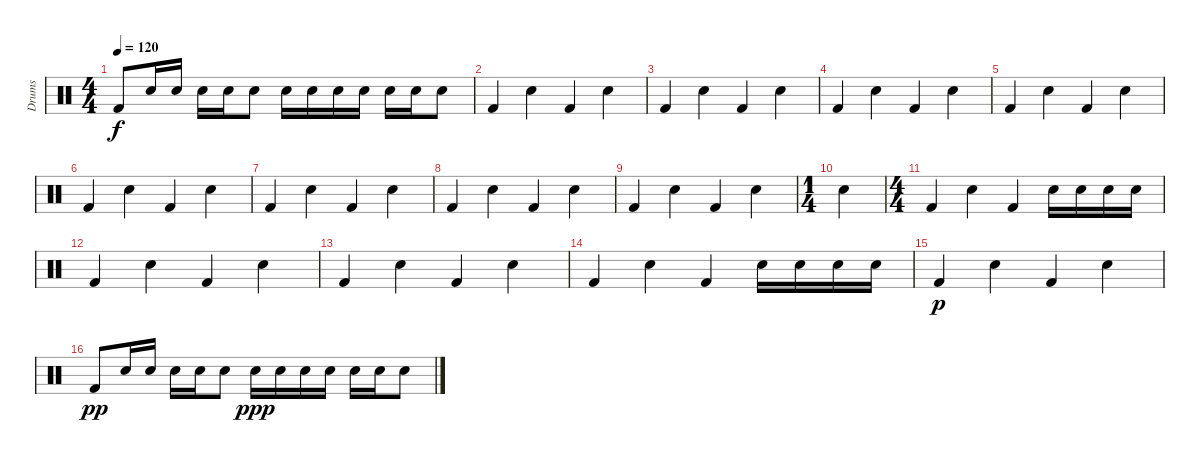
\track ("Drums" "Drums") {instrument percussion}
\staff {score}
\articulation defaults
\ts (4 4)
\tempo 120
\clef neutral
\ks c "Kick (hit) 2".8{dy f} "Electric Snare (hit)".16 "Electric Snare (hit)".16 "Electric Snare (hit)".16 "Electric Snare (hit)".16 "Electric Snare (hit)".8 "Electric Snare (hit)".16 "Electric Snare (hit)".16 "Electric Snare (hit)".16 "Electric Snare (hit)".16 "Electric Snare (hit)".16 "Electric Snare (hit)".16 "Electric Snare (hit)".8
|
"Kick (hit) 2".4 "Electric Snare (hit)".4 "Kick (hit) 2".4 "Electric Snare (hit)".4 |
"Kick (hit) 2".4 "Electric Snare (hit)".4 "Kick (hit) 2".4 "Electric Snare (hit)".4 |
"Kick (hit) 2".4 "Electric Snare (hit)".4 "Kick (hit) 2".4 "Electric Snare (hit)".4 |
"Kick (hit) 2".4 "Electric Snare (hit)".4 "Kick (hit) 2".4 "Electric Snare (hit)".4 |
"Kick (hit) 2".4 "Electric Snare (hit)".4 "Kick (hit) 2".4 "Electric Snare (hit)".4 |
"Kick (hit) 2".4 "Electric Snare (hit)".4 "Kick (hit) 2".4 "Electric Snare (hit)".4 |
"Kick (hit) 2".4 "Electric Snare (hit)".4 "Kick (hit) 2".4 "Electric Snare (hit)".4 |
"Kick (hit) 2".4 "Electric Snare (hit)".4 "Kick (hit) 2".4 "Electric Snare (hit)".4 |
\ts (1 4)
"Electric Snare (hit)".4 |
\ts (4 4)
"Kick (hit) 2".4 "Electric Snare (hit)".4 "Kick (hit) 2".4 "Electric Snare (hit)".16 "Electric Snare (hit)".16 "Electric Snare (hit)".16 "Electric Snare (hit)".16 |
"Kick (hit) 2".4 "Electric Snare (hit)".4 "Kick (hit) 2".4 "Electric Snare (hit)".4 |
"Kick (hit) 2".4 "Electric Snare (hit)".4 "Kick (hit) 2".4 "Electric Snare (hit)".4 |
"Kick (hit) 2".4 "Electric Snare (hit)".4 "Kick (hit) 2".4 "Electric Snare (hit)".16 "Electric Snare (hit)".16 "Electric Snare (hit)".16 "Electric Snare (hit)".16 |
"Kick (hit) 2".4{dy p} "Electric Snare (hit)".4 "Kick (hit) 2".4 "Electric Snare (hit)".4 |
"Kick (hit) 2".8{dy pp} "Electric Snare (hit)".16 "Electric Snare (hit)".16 "Electric Snare (hit)".16 "Electric Snare (hit)".16 "Electric Snare (hit)".8 "Electric Snare (hit)".16{dy ppp} "Electric Snare (hit)".16 "Electric Snare (hit)".16 "Electric Snare (hit)".16 "Electric Snare (hit)".16 "Electric Snare (hit)".16 "Electric Snare (hit)".8
